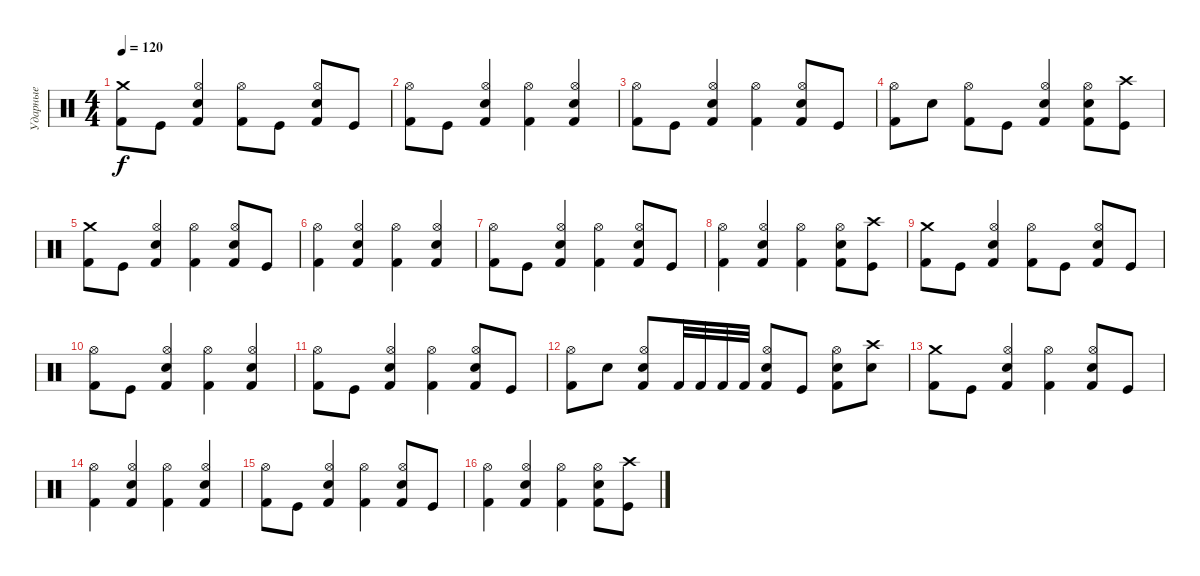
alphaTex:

\track ("Ударные" "Ударные") {instrument percussion}
\staff {score}
\articulation defaults
\ts (4 4)
\tempo 120
\clef neutral
\ks c
("Crash medium (hit)" "Kick (hit) 2").8{dy f} "Kick (hit)".8 ("Hi-Hat (open)" "Electric Snare (hit)" "Kick (hit) 2").4 ("Hi-Hat (open)" "Kick (hit) 2").8 "Kick (hit)".8 ("Hi-Hat (open)" "Electric Snare (hit)" "Kick (hit) 2").8 "Kick (hit)".8 |
("Hi-Hat (open)" "Kick (hit) 2").8 "Kick (hit)".8 ("Hi-Hat (open)" "Electric Snare (hit)" "Kick (hit) 2").4 ("Hi-Hat (open)" "Kick (hit) 2").4 ("Hi-Hat (open)" "Electric Snare (hit)" "Kick (hit) 2").4 |
("Hi-Hat (open)" "Kick (hit) 2").8 "Kick (hit)".8 ("Hi-Hat (open)" "Electric Snare (hit)" "Kick (hit) 2").4 ("Hi-Hat (open)" "Kick (hit) 2").4 ("Hi-Hat (open)" "Electric Snare (hit)" "Kick (hit) 2").8 "Kick (hit)".8 |
("Hi-Hat (open)" "Kick (hit) 2").8 "Electric Snare (hit)".8 ("Hi-Hat (open)" "Kick (hit) 2").8 "Kick (hit)".8 ("Hi-Hat (open)" "Electric Snare (hit)" "Kick (hit) 2").4 ("Hi-Hat (open)" "Electric Snare (hit)" "Kick (hit) 2").8 ("Crash high (hit)" "Kick (hit)").8 |
("Crash medium (hit)" "Kick (hit) 2").8 "Kick (hit)".8 ("Hi-Hat (open)" "Electric Snare (hit)" "Kick (hit) 2").4 ("Hi-Hat (open)" "Kick (hit) 2").4 ("Hi-Hat (open)" "Electric Snare (hit)" "Kick (hit) 2").8 "Kick (hit)".8 |
("Hi-Hat (open)" "Kick (hit) 2").4 ("Hi-Hat (open)" "Electric Snare (hit)" "Kick (hit) 2").4 ("Hi-Hat (open)" "Kick (hit) 2").4 ("Hi-Hat (open)" "Electric Snare (hit)" "Kick (hit) 2").4 |
("Hi-Hat (open)" "Kick (hit) 2").8 "Kick (hit)".8 ("Hi-Hat (open)" "Electric Snare (hit)" "Kick (hit) 2").4 ("Hi-Hat (open)" "Kick (hit) 2").4 ("Hi-Hat (open)" "Electric Snare (hit)" "Kick (hit) 2").8 "Kick (hit)".8 |
("Hi-Hat (open)" "Kick (hit) 2").4 ("Hi-Hat (open)" "Electric Snare (hit)" "Kick (hit) 2").4 ("Hi-Hat (open)" "Kick (hit) 2").4 ("Hi-Hat (open)" "Electric Snare (hit)" "Kick (hit) 2").8 ("Crash high (hit)" "Kick (hit)").8 |
("Crash medium (hit)" "Kick (hit) 2").8 "Kick (hit)".8 ("Hi-Hat (open)" "Electric Snare (hit)" "Kick (hit) 2").4 ("Hi-Hat (open)" "Kick (hit) 2").8 "Kick (hit)".8 ("Hi-Hat (open)" "Electric Snare (hit)" "Kick (hit) 2").8 "Kick (hit)".8 |
("Hi-Hat (open)" "Kick (hit) 2").8 "Kick (hit)".8 ("Hi-Hat (open)" "Electric Snare (hit)" "Kick (hit) 2").4 ("Hi-Hat (open)" "Kick (hit) 2").4 ("Hi-Hat (open)" "Electric Snare (hit)" "Kick (hit) 2").4 |
("Hi-Hat (open)" "Kick (hit) 2").8 "Kick (hit)".8 ("Hi-Hat (open)" "Electric Snare (hit)" "Kick (hit) 2").4 ("Hi-Hat (open)" "Kick (hit) 2").4 ("Hi-Hat (open)" "Electric Snare (hit)" "Kick (hit) 2").8 "Kick (hit)".8 |
("Hi-Hat (open)" "Kick (hit) 2").8 "Electric Snare (hit)".8 ("Hi-Hat (open)" "Electric Snare (hit)" "Kick (hit) 2").8 "Kick (hit) 2".32 "Kick (hit) 2".32 "Kick (hit) 2".32 "Kick (hit) 2".32 ("Hi-Hat (open)" "Electric Snare (hit)" "Kick (hit) 2").8 "Kick (hit)".8 ("Hi-Hat (open)" "Electric Snare (hit)" "Kick (hit) 2").8 ("Crash high (hit)" "Electric Snare (hit)").8 |
("Crash medium (hit)" "Kick (hit) 2").8 "Kick (hit)".8 ("Hi-Hat (open)" "Electric Snare (hit)" "Kick (hit) 2").4 ("Hi-Hat (open)" "Kick (hit) 2").4 ("Hi-Hat (open)" "Electric Snare (hit)" "Kick (hit) 2").8 "Kick (hit)".8 |
("Hi-Hat (open)" "Kick (hit) 2").4 ("Hi-Hat (open)" "Electric Snare (hit)" "Kick (hit) 2").4 ("Hi-Hat (open)" "Kick (hit) 2").4 ("Hi-Hat (open)" "Electric Snare (hit)" "Kick (hit) 2").4 |
("Hi-Hat (open)" "Kick (hit) 2").8 "Kick (hit)".8 ("Hi-Hat (open)" "Electric Snare (hit)" "Kick (hit) 2").4 ("Hi-Hat (open)" "Kick (hit) 2").4 ("Hi-Hat (open)" "Electric Snare (hit)" "Kick (hit) 2").8 "Kick (hit)".8 |
("Hi-Hat (open)" "Kick (hit) 2").4 ("Hi-Hat (open)" "Electric Snare (hit)" "Kick (hit) 2").4 ("Hi-Hat (open)" "Kick (hit) 2").4 ("Hi-Hat (open)" "Electric Snare (hit)" "Kick (hit) 2").8 ("Crash high (hit)" "Kick (hit)").8
